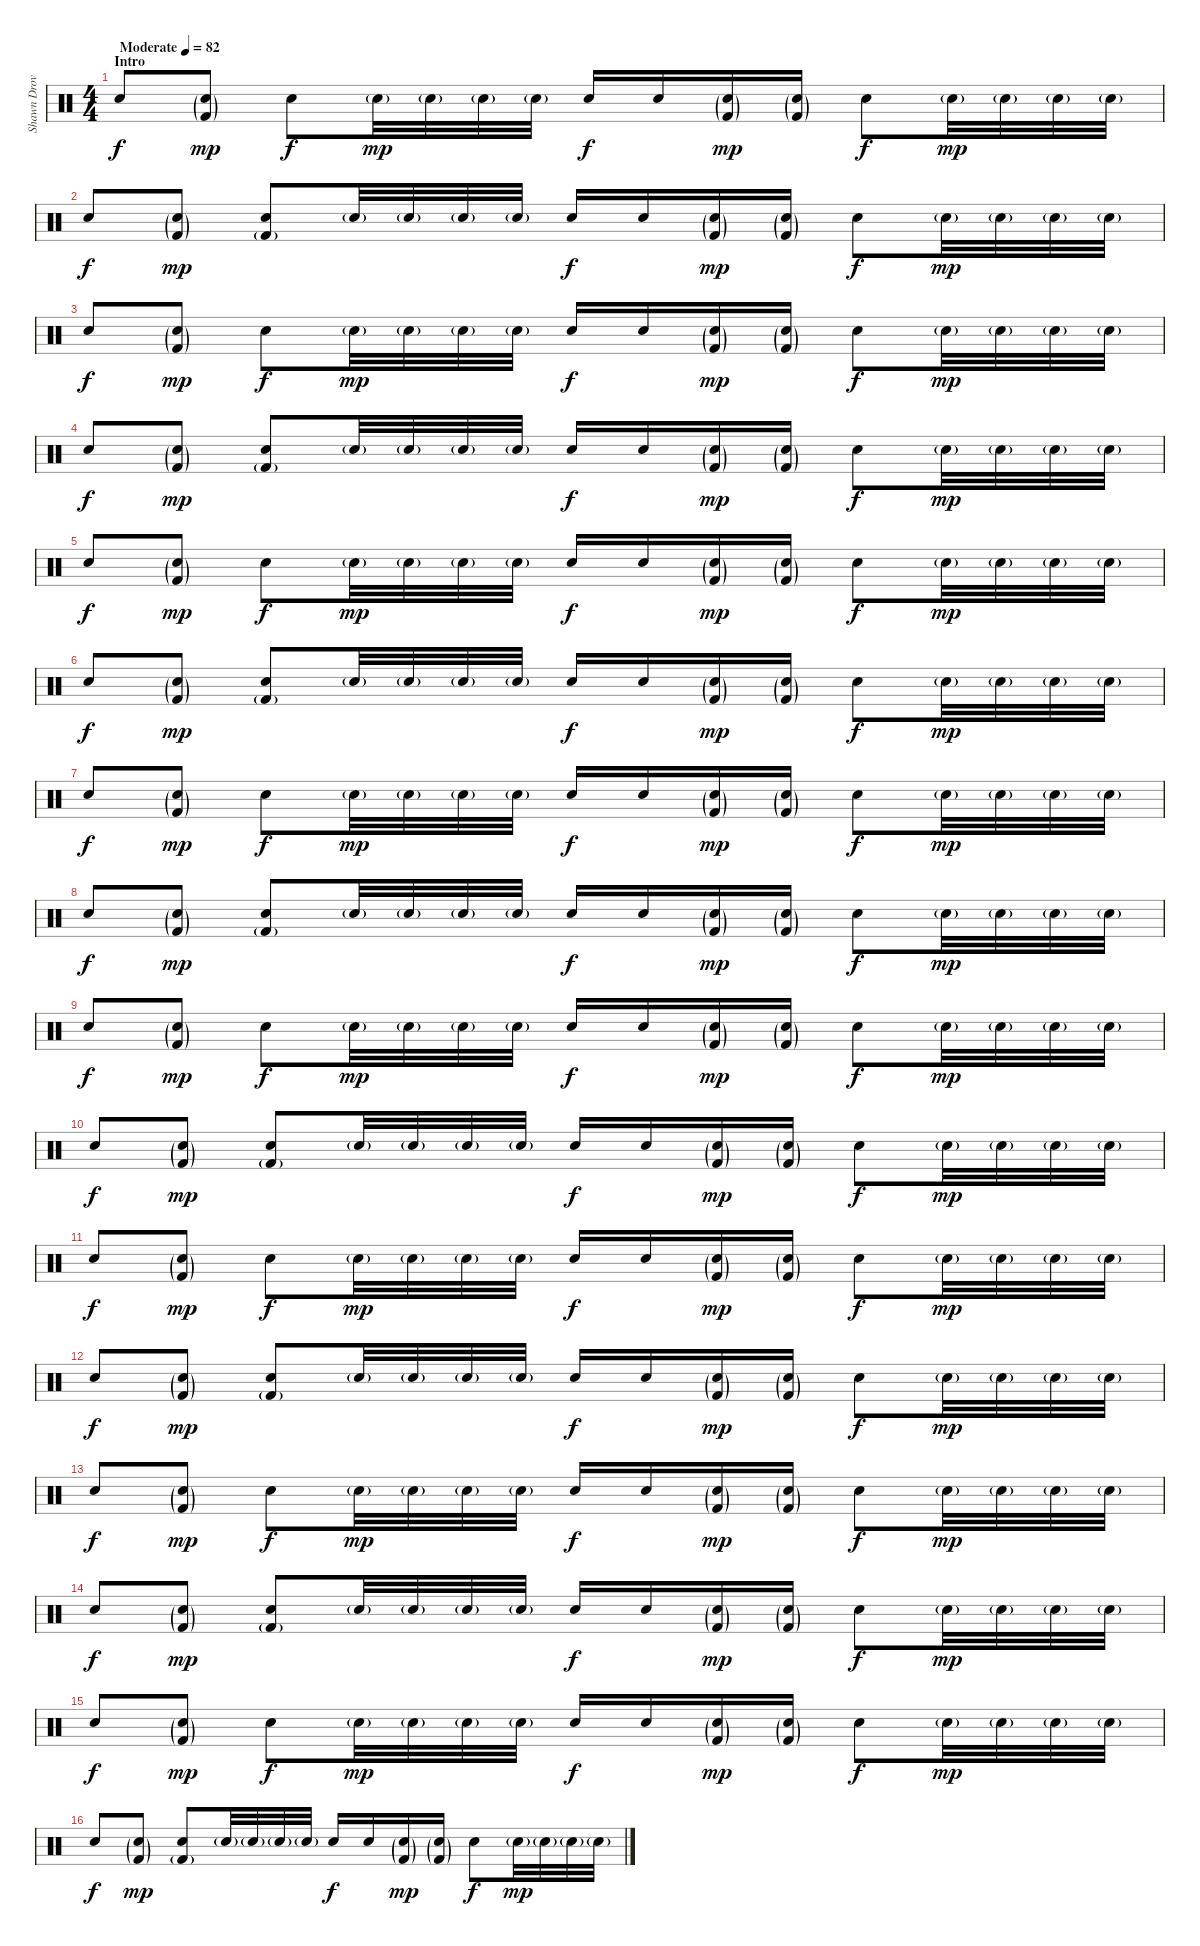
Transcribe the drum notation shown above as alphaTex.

\track ("Shawn Drover" "Shawn Drov") {instrument percussion}
\staff {score}
\articulation defaults
\ts (4 4)
\section ("" "Intro")
\tempo (82 "Moderate")
\clef neutral
\ks c "Snare (hit) 2".8{dy f}
("Snare (hit) 2"{g} "Kick (hit) 2"{g}).8{dy mp} "Snare (hit) 2".8{dy f} "Snare (hit) 2"{g}.32{dy mp} "Snare (hit) 2"{g}.32 "Snare (hit) 2"{g}.32 "Snare (hit) 2"{g}.32 "Snare (hit) 2".16{dy f} "Snare (hit) 2".16 ("Snare (hit) 2"{g} "Kick (hit) 2"{g}).16{dy mp} ("Snare (hit) 2"{g} "Kick (hit) 2"{g}).16 "Snare (hit) 2".8{dy f} "Snare (hit) 2"{g}.32{dy mp} "Snare (hit) 2"{g}.32 "Snare (hit) 2"{g}.32 "Snare (hit) 2"{g}.32 |
"Snare (hit) 2".8{dy f} ("Snare (hit) 2"{g} "Kick (hit) 2"{g}).8{dy mp} ("Snare (hit) 2" "Kick (hit) 2"{g}).8 "Snare (hit) 2"{g}.32 "Snare (hit) 2"{g}.32 "Snare (hit) 2"{g}.32 "Snare (hit) 2"{g}.32 "Snare (hit) 2".16{dy f} "Snare (hit) 2".16 ("Snare (hit) 2"{g} "Kick (hit) 2"{g}).16{dy mp} ("Snare (hit) 2"{g} "Kick (hit) 2"{g}).16 "Snare (hit) 2".8{dy f} "Snare (hit) 2"{g}.32{dy mp} "Snare (hit) 2"{g}.32 "Snare (hit) 2"{g}.32 "Snare (hit) 2"{g}.32 |
"Snare (hit) 2".8{dy f} ("Snare (hit) 2"{g} "Kick (hit) 2"{g}).8{dy mp} "Snare (hit) 2".8{dy f} "Snare (hit) 2"{g}.32{dy mp} "Snare (hit) 2"{g}.32 "Snare (hit) 2"{g}.32 "Snare (hit) 2"{g}.32 "Snare (hit) 2".16{dy f} "Snare (hit) 2".16 ("Snare (hit) 2"{g} "Kick (hit) 2"{g}).16{dy mp} ("Snare (hit) 2"{g} "Kick (hit) 2"{g}).16 "Snare (hit) 2".8{dy f} "Snare (hit) 2"{g}.32{dy mp} "Snare (hit) 2"{g}.32 "Snare (hit) 2"{g}.32 "Snare (hit) 2"{g}.32 |
"Snare (hit) 2".8{dy f} ("Snare (hit) 2"{g} "Kick (hit) 2"{g}).8{dy mp} ("Snare (hit) 2" "Kick (hit) 2"{g}).8 "Snare (hit) 2"{g}.32 "Snare (hit) 2"{g}.32 "Snare (hit) 2"{g}.32 "Snare (hit) 2"{g}.32 "Snare (hit) 2".16{dy f} "Snare (hit) 2".16 ("Snare (hit) 2"{g} "Kick (hit) 2"{g}).16{dy mp} ("Snare (hit) 2"{g} "Kick (hit) 2"{g}).16 "Snare (hit) 2".8{dy f} "Snare (hit) 2"{g}.32{dy mp} "Snare (hit) 2"{g}.32 "Snare (hit) 2"{g}.32 "Snare (hit) 2"{g}.32 |
"Snare (hit) 2".8{dy f} ("Snare (hit) 2"{g} "Kick (hit) 2"{g}).8{dy mp} "Snare (hit) 2".8{dy f} "Snare (hit) 2"{g}.32{dy mp} "Snare (hit) 2"{g}.32 "Snare (hit) 2"{g}.32 "Snare (hit) 2"{g}.32 "Snare (hit) 2".16{dy f} "Snare (hit) 2".16 ("Snare (hit) 2"{g} "Kick (hit) 2"{g}).16{dy mp} ("Snare (hit) 2"{g} "Kick (hit) 2"{g}).16 "Snare (hit) 2".8{dy f} "Snare (hit) 2"{g}.32{dy mp} "Snare (hit) 2"{g}.32 "Snare (hit) 2"{g}.32 "Snare (hit) 2"{g}.32 |
"Snare (hit) 2".8{dy f} ("Snare (hit) 2"{g} "Kick (hit) 2"{g}).8{dy mp} ("Snare (hit) 2" "Kick (hit) 2"{g}).8 "Snare (hit) 2"{g}.32 "Snare (hit) 2"{g}.32 "Snare (hit) 2"{g}.32 "Snare (hit) 2"{g}.32 "Snare (hit) 2".16{dy f} "Snare (hit) 2".16 ("Snare (hit) 2"{g} "Kick (hit) 2"{g}).16{dy mp} ("Snare (hit) 2"{g} "Kick (hit) 2"{g}).16 "Snare (hit) 2".8{dy f} "Snare (hit) 2"{g}.32{dy mp} "Snare (hit) 2"{g}.32 "Snare (hit) 2"{g}.32 "Snare (hit) 2"{g}.32 |
"Snare (hit) 2".8{dy f} ("Snare (hit) 2"{g} "Kick (hit) 2"{g}).8{dy mp} "Snare (hit) 2".8{dy f} "Snare (hit) 2"{g}.32{dy mp} "Snare (hit) 2"{g}.32 "Snare (hit) 2"{g}.32 "Snare (hit) 2"{g}.32 "Snare (hit) 2".16{dy f} "Snare (hit) 2".16 ("Snare (hit) 2"{g} "Kick (hit) 2"{g}).16{dy mp} ("Snare (hit) 2"{g} "Kick (hit) 2"{g}).16 "Snare (hit) 2".8{dy f} "Snare (hit) 2"{g}.32{dy mp} "Snare (hit) 2"{g}.32 "Snare (hit) 2"{g}.32 "Snare (hit) 2"{g}.32 |
"Snare (hit) 2".8{dy f} ("Snare (hit) 2"{g} "Kick (hit) 2"{g}).8{dy mp} ("Snare (hit) 2" "Kick (hit) 2"{g}).8 "Snare (hit) 2"{g}.32 "Snare (hit) 2"{g}.32 "Snare (hit) 2"{g}.32 "Snare (hit) 2"{g}.32 "Snare (hit) 2".16{dy f} "Snare (hit) 2".16 ("Snare (hit) 2"{g} "Kick (hit) 2"{g}).16{dy mp} ("Snare (hit) 2"{g} "Kick (hit) 2"{g}).16 "Snare (hit) 2".8{dy f} "Snare (hit) 2"{g}.32{dy mp} "Snare (hit) 2"{g}.32 "Snare (hit) 2"{g}.32 "Snare (hit) 2"{g}.32 |
"Snare (hit) 2".8{dy f} ("Snare (hit) 2"{g} "Kick (hit) 2"{g}).8{dy mp} "Snare (hit) 2".8{dy f} "Snare (hit) 2"{g}.32{dy mp} "Snare (hit) 2"{g}.32 "Snare (hit) 2"{g}.32 "Snare (hit) 2"{g}.32 "Snare (hit) 2".16{dy f} "Snare (hit) 2".16 ("Snare (hit) 2"{g} "Kick (hit) 2"{g}).16{dy mp} ("Snare (hit) 2"{g} "Kick (hit) 2"{g}).16 "Snare (hit) 2".8{dy f} "Snare (hit) 2"{g}.32{dy mp} "Snare (hit) 2"{g}.32 "Snare (hit) 2"{g}.32 "Snare (hit) 2"{g}.32 |
"Snare (hit) 2".8{dy f} ("Snare (hit) 2"{g} "Kick (hit) 2"{g}).8{dy mp} ("Snare (hit) 2" "Kick (hit) 2"{g}).8 "Snare (hit) 2"{g}.32 "Snare (hit) 2"{g}.32 "Snare (hit) 2"{g}.32 "Snare (hit) 2"{g}.32 "Snare (hit) 2".16{dy f} "Snare (hit) 2".16 ("Snare (hit) 2"{g} "Kick (hit) 2"{g}).16{dy mp} ("Snare (hit) 2"{g} "Kick (hit) 2"{g}).16 "Snare (hit) 2".8{dy f} "Snare (hit) 2"{g}.32{dy mp} "Snare (hit) 2"{g}.32 "Snare (hit) 2"{g}.32 "Snare (hit) 2"{g}.32 |
"Snare (hit) 2".8{dy f} ("Snare (hit) 2"{g} "Kick (hit) 2"{g}).8{dy mp} "Snare (hit) 2".8{dy f} "Snare (hit) 2"{g}.32{dy mp} "Snare (hit) 2"{g}.32 "Snare (hit) 2"{g}.32 "Snare (hit) 2"{g}.32 "Snare (hit) 2".16{dy f} "Snare (hit) 2".16 ("Snare (hit) 2"{g} "Kick (hit) 2"{g}).16{dy mp} ("Snare (hit) 2"{g} "Kick (hit) 2"{g}).16 "Snare (hit) 2".8{dy f} "Snare (hit) 2"{g}.32{dy mp} "Snare (hit) 2"{g}.32 "Snare (hit) 2"{g}.32 "Snare (hit) 2"{g}.32 |
"Snare (hit) 2".8{dy f} ("Snare (hit) 2"{g} "Kick (hit) 2"{g}).8{dy mp} ("Snare (hit) 2" "Kick (hit) 2"{g}).8 "Snare (hit) 2"{g}.32 "Snare (hit) 2"{g}.32 "Snare (hit) 2"{g}.32 "Snare (hit) 2"{g}.32 "Snare (hit) 2".16{dy f} "Snare (hit) 2".16 ("Snare (hit) 2"{g} "Kick (hit) 2"{g}).16{dy mp} ("Snare (hit) 2"{g} "Kick (hit) 2"{g}).16 "Snare (hit) 2".8{dy f} "Snare (hit) 2"{g}.32{dy mp} "Snare (hit) 2"{g}.32 "Snare (hit) 2"{g}.32 "Snare (hit) 2"{g}.32 |
"Snare (hit) 2".8{dy f} ("Snare (hit) 2"{g} "Kick (hit) 2"{g}).8{dy mp} "Snare (hit) 2".8{dy f} "Snare (hit) 2"{g}.32{dy mp} "Snare (hit) 2"{g}.32 "Snare (hit) 2"{g}.32 "Snare (hit) 2"{g}.32 "Snare (hit) 2".16{dy f} "Snare (hit) 2".16 ("Snare (hit) 2"{g} "Kick (hit) 2"{g}).16{dy mp} ("Snare (hit) 2"{g} "Kick (hit) 2"{g}).16 "Snare (hit) 2".8{dy f} "Snare (hit) 2"{g}.32{dy mp} "Snare (hit) 2"{g}.32 "Snare (hit) 2"{g}.32 "Snare (hit) 2"{g}.32 |
"Snare (hit) 2".8{dy f} ("Snare (hit) 2"{g} "Kick (hit) 2"{g}).8{dy mp} ("Snare (hit) 2" "Kick (hit) 2"{g}).8 "Snare (hit) 2"{g}.32 "Snare (hit) 2"{g}.32 "Snare (hit) 2"{g}.32 "Snare (hit) 2"{g}.32 "Snare (hit) 2".16{dy f} "Snare (hit) 2".16 ("Snare (hit) 2"{g} "Kick (hit) 2"{g}).16{dy mp} ("Snare (hit) 2"{g} "Kick (hit) 2"{g}).16 "Snare (hit) 2".8{dy f} "Snare (hit) 2"{g}.32{dy mp} "Snare (hit) 2"{g}.32 "Snare (hit) 2"{g}.32 "Snare (hit) 2"{g}.32 |
"Snare (hit) 2".8{dy f} ("Snare (hit) 2"{g} "Kick (hit) 2"{g}).8{dy mp} "Snare (hit) 2".8{dy f} "Snare (hit) 2"{g}.32{dy mp} "Snare (hit) 2"{g}.32 "Snare (hit) 2"{g}.32 "Snare (hit) 2"{g}.32 "Snare (hit) 2".16{dy f} "Snare (hit) 2".16 ("Snare (hit) 2"{g} "Kick (hit) 2"{g}).16{dy mp} ("Snare (hit) 2"{g} "Kick (hit) 2"{g}).16 "Snare (hit) 2".8{dy f} "Snare (hit) 2"{g}.32{dy mp} "Snare (hit) 2"{g}.32 "Snare (hit) 2"{g}.32 "Snare (hit) 2"{g}.32 |
"Snare (hit) 2".8{dy f} ("Snare (hit) 2"{g} "Kick (hit) 2"{g}).8{dy mp} ("Snare (hit) 2" "Kick (hit) 2"{g}).8 "Snare (hit) 2"{g}.32 "Snare (hit) 2"{g}.32 "Snare (hit) 2"{g}.32 "Snare (hit) 2"{g}.32 "Snare (hit) 2".16{dy f} "Snare (hit) 2".16 ("Snare (hit) 2"{g} "Kick (hit) 2"{g}).16{dy mp} ("Snare (hit) 2"{g} "Kick (hit) 2"{g}).16 "Snare (hit) 2".8{dy f} "Snare (hit) 2"{g}.32{dy mp} "Snare (hit) 2"{g}.32 "Snare (hit) 2"{g}.32 "Snare (hit) 2"{g}.32
